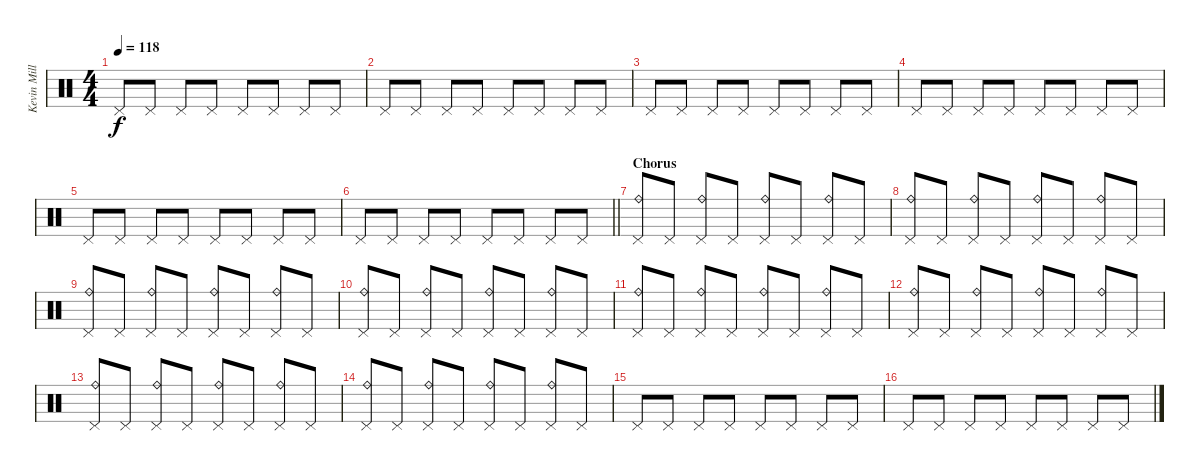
\track ("Kevin Miller (Drums)" "Kevin Mill") {instrument percussion}
\staff {score}
\articulation defaults
\ts (4 4)
\tempo 118
\clef neutral
\ks c "Pedal Hi-Hat (hit)".8{dy f} "Pedal Hi-Hat (hit)".8 "Pedal Hi-Hat (hit)".8 "Pedal Hi-Hat (hit)".8 "Pedal Hi-Hat (hit)".8 "Pedal Hi-Hat (hit)".8 "Pedal Hi-Hat (hit)".8 "Pedal Hi-Hat (hit)".8
|
"Pedal Hi-Hat (hit)".8 "Pedal Hi-Hat (hit)".8 "Pedal Hi-Hat (hit)".8 "Pedal Hi-Hat (hit)".8 "Pedal Hi-Hat (hit)".8 "Pedal Hi-Hat (hit)".8 "Pedal Hi-Hat (hit)".8 "Pedal Hi-Hat (hit)".8 |
"Pedal Hi-Hat (hit)".8 "Pedal Hi-Hat (hit)".8 "Pedal Hi-Hat (hit)".8 "Pedal Hi-Hat (hit)".8 "Pedal Hi-Hat (hit)".8 "Pedal Hi-Hat (hit)".8 "Pedal Hi-Hat (hit)".8 "Pedal Hi-Hat (hit)".8 |
"Pedal Hi-Hat (hit)".8 "Pedal Hi-Hat (hit)".8 "Pedal Hi-Hat (hit)".8 "Pedal Hi-Hat (hit)".8 "Pedal Hi-Hat (hit)".8 "Pedal Hi-Hat (hit)".8 "Pedal Hi-Hat (hit)".8 "Pedal Hi-Hat (hit)".8 |
"Pedal Hi-Hat (hit)".8 "Pedal Hi-Hat (hit)".8 "Pedal Hi-Hat (hit)".8 "Pedal Hi-Hat (hit)".8 "Pedal Hi-Hat (hit)".8 "Pedal Hi-Hat (hit)".8 "Pedal Hi-Hat (hit)".8 "Pedal Hi-Hat (hit)".8 |
\barLineRight lightlight "Pedal Hi-Hat (hit)".8 "Pedal Hi-Hat (hit)".8 "Pedal Hi-Hat (hit)".8 "Pedal Hi-Hat (hit)".8 "Pedal Hi-Hat (hit)".8 "Pedal Hi-Hat (hit)".8 "Pedal Hi-Hat (hit)".8 "Pedal Hi-Hat (hit)".8
|
\section ("" "Chorus")
("Pedal Hi-Hat (hit)" "Ride (bell)").8 "Pedal Hi-Hat (hit)".8 ("Pedal Hi-Hat (hit)" "Ride (bell)").8 "Pedal Hi-Hat (hit)".8 ("Pedal Hi-Hat (hit)" "Ride (bell)").8 "Pedal Hi-Hat (hit)".8 ("Pedal Hi-Hat (hit)" "Ride (bell)").8 "Pedal Hi-Hat (hit)".8 |
("Pedal Hi-Hat (hit)" "Ride (bell)").8 "Pedal Hi-Hat (hit)".8 ("Pedal Hi-Hat (hit)" "Ride (bell)").8 "Pedal Hi-Hat (hit)".8 ("Pedal Hi-Hat (hit)" "Ride (bell)").8 "Pedal Hi-Hat (hit)".8 ("Pedal Hi-Hat (hit)" "Ride (bell)").8 "Pedal Hi-Hat (hit)".8 |
("Pedal Hi-Hat (hit)" "Ride (bell)").8 "Pedal Hi-Hat (hit)".8 ("Pedal Hi-Hat (hit)" "Ride (bell)").8 "Pedal Hi-Hat (hit)".8 ("Pedal Hi-Hat (hit)" "Ride (bell)").8 "Pedal Hi-Hat (hit)".8 ("Pedal Hi-Hat (hit)" "Ride (bell)").8 "Pedal Hi-Hat (hit)".8 |
("Pedal Hi-Hat (hit)" "Ride (bell)").8 "Pedal Hi-Hat (hit)".8 ("Pedal Hi-Hat (hit)" "Ride (bell)").8 "Pedal Hi-Hat (hit)".8 ("Pedal Hi-Hat (hit)" "Ride (bell)").8 "Pedal Hi-Hat (hit)".8 ("Pedal Hi-Hat (hit)" "Ride (bell)").8 "Pedal Hi-Hat (hit)".8 |
("Pedal Hi-Hat (hit)" "Ride (bell)").8 "Pedal Hi-Hat (hit)".8 ("Pedal Hi-Hat (hit)" "Ride (bell)").8 "Pedal Hi-Hat (hit)".8 ("Pedal Hi-Hat (hit)" "Ride (bell)").8 "Pedal Hi-Hat (hit)".8 ("Pedal Hi-Hat (hit)" "Ride (bell)").8 "Pedal Hi-Hat (hit)".8 |
("Pedal Hi-Hat (hit)" "Ride (bell)").8 "Pedal Hi-Hat (hit)".8 ("Pedal Hi-Hat (hit)" "Ride (bell)").8 "Pedal Hi-Hat (hit)".8 ("Pedal Hi-Hat (hit)" "Ride (bell)").8 "Pedal Hi-Hat (hit)".8 ("Pedal Hi-Hat (hit)" "Ride (bell)").8 "Pedal Hi-Hat (hit)".8 |
("Pedal Hi-Hat (hit)" "Ride (bell)").8 "Pedal Hi-Hat (hit)".8 ("Pedal Hi-Hat (hit)" "Ride (bell)").8 "Pedal Hi-Hat (hit)".8 ("Pedal Hi-Hat (hit)" "Ride (bell)").8 "Pedal Hi-Hat (hit)".8 ("Pedal Hi-Hat (hit)" "Ride (bell)").8 "Pedal Hi-Hat (hit)".8 |
("Pedal Hi-Hat (hit)" "Ride (bell)").8 "Pedal Hi-Hat (hit)".8 ("Pedal Hi-Hat (hit)" "Ride (bell)").8 "Pedal Hi-Hat (hit)".8 ("Pedal Hi-Hat (hit)" "Ride (bell)").8 "Pedal Hi-Hat (hit)".8 ("Pedal Hi-Hat (hit)" "Ride (bell)").8 "Pedal Hi-Hat (hit)".8 |
"Pedal Hi-Hat (hit)".8 "Pedal Hi-Hat (hit)".8 "Pedal Hi-Hat (hit)".8 "Pedal Hi-Hat (hit)".8 "Pedal Hi-Hat (hit)".8 "Pedal Hi-Hat (hit)".8 "Pedal Hi-Hat (hit)".8 "Pedal Hi-Hat (hit)".8 |
"Pedal Hi-Hat (hit)".8 "Pedal Hi-Hat (hit)".8 "Pedal Hi-Hat (hit)".8 "Pedal Hi-Hat (hit)".8 "Pedal Hi-Hat (hit)".8 "Pedal Hi-Hat (hit)".8 "Pedal Hi-Hat (hit)".8 "Pedal Hi-Hat (hit)".8
